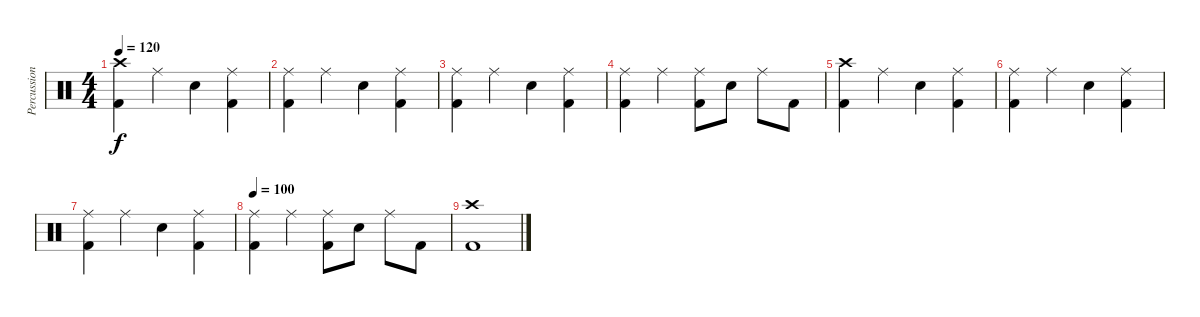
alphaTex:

\track ("Percussion" "Percussion") {instrument percussion}
\staff {score}
\articulation defaults
\ts (4 4)
\tempo 120
\clef neutral
\ks c
("Crash high (hit)" "Kick (hit) 2").4{dy f} "Ride (middle)".4 "Snare (hit) 2".4 ("Ride (middle)" "Kick (hit) 2").4 |
("Ride (middle)" "Kick (hit) 2").4 "Ride (middle)".4 "Snare (hit) 2".4 ("Ride (middle)" "Kick (hit) 2").4 |
("Ride (middle)" "Kick (hit) 2").4 "Ride (middle)".4 "Snare (hit) 2".4 ("Ride (middle)" "Kick (hit) 2").4 |
("Ride (middle)" "Kick (hit) 2").4 "Ride (middle)".4 ("Ride (middle)" "Kick (hit) 2").8 "Snare (hit) 2".8 "Ride (middle)".8 "Kick (hit) 2".8 |
("Crash high (hit)" "Kick (hit) 2").4 "Ride (middle)".4 "Snare (hit) 2".4 ("Ride (middle)" "Kick (hit) 2").4 |
("Ride (middle)" "Kick (hit) 2").4 "Ride (middle)".4 "Snare (hit) 2".4 ("Ride (middle)" "Kick (hit) 2").4 |
("Ride (middle)" "Kick (hit) 2").4 "Ride (middle)".4 "Snare (hit) 2".4 ("Ride (middle)" "Kick (hit) 2").4 |
\tempo 100
("Ride (middle)" "Kick (hit) 2").4 "Ride (middle)".4 ("Ride (middle)" "Kick (hit) 2").8 "Snare (hit) 2".8 "Ride (middle)".8 "Kick (hit) 2".8 |
("Crash high (hit)" "Kick (hit) 2").1
